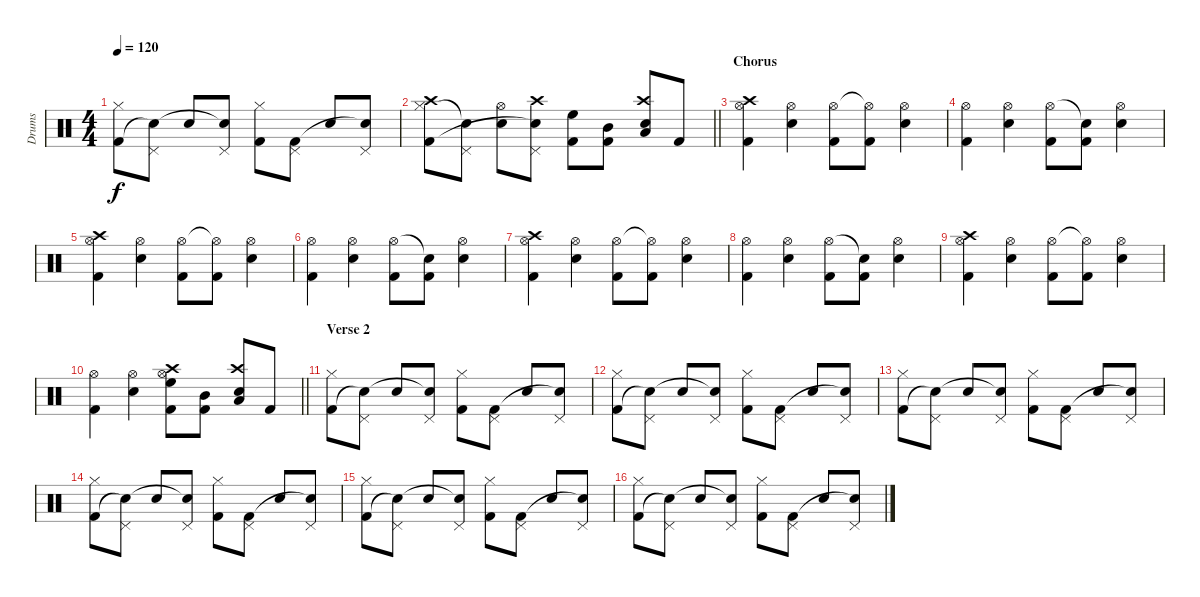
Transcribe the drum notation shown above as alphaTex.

\track ("Drums" "Drums") {instrument percussion}
\staff {score}
\articulation defaults
\ts (4 4)
\tempo 120
\clef neutral
\ks c
("Hi-Hat (closed)" "Kick (hit) 2").8{dy f} ("Pedal Hi-Hat (hit)" "Snare (hit)"{t}).8 "Snare (hit) 2".8 ("Pedal Hi-Hat (hit)" "Snare (hit)"{t}).8 ("Hi-Hat (closed)" "Kick (hit) 2").8 ("Pedal Hi-Hat (hit)" "Kick (hit) 2").8 "Snare (hit) 2".8 ("Pedal Hi-Hat (hit)" "Snare (hit)"{t}).8 |
\barLineRight lightlight
("Crash high (hit)" "Hi-Hat (closed)" "Kick (hit) 2").8 ("Pedal Hi-Hat (hit)" "Snare (hit)"{t}).8 ("Hi-Hat (open)" "Snare (hit) 2").8 ("Crash high (hit)" "Pedal Hi-Hat (hit)" "Snare (hit)"{t}).8 ("High Floor Tom (hit)" "Kick (hit) 2").8 ("Mid Tom (hit)" "Kick (hit) 2").8 ("Crash high (hit)" "Low Floor Tom (hit)" "Snare (hit) 2").8 "Kick (hit) 2".8 |
\section ("" "Chorus")
("Crash high (hit)" "Hi-Hat (open)" "Kick (hit) 2").4 ("Hi-Hat (open)" "Snare (hit) 2").4 ("Hi-Hat (open)" "Kick (hit) 2").8 ("Hi-Hat (open)"{t} "Kick (hit) 2").8 ("Hi-Hat (open)" "Snare (hit) 2").4 |
("Hi-Hat (open)" "Kick (hit) 2").4 ("Hi-Hat (open)" "Snare (hit) 2").4 ("Hi-Hat (open)" "Kick (hit) 2").8 ("Snare (hit)"{t} "Kick (hit) 2").8 ("Hi-Hat (open)" "Snare (hit) 2").4 |
("Crash high (hit)" "Hi-Hat (open)" "Kick (hit) 2").4 ("Hi-Hat (open)" "Snare (hit) 2").4 ("Hi-Hat (open)" "Kick (hit) 2").8 ("Hi-Hat (open)"{t} "Kick (hit) 2").8 ("Hi-Hat (open)" "Snare (hit) 2").4 |
("Hi-Hat (open)" "Kick (hit) 2").4 ("Hi-Hat (open)" "Snare (hit) 2").4 ("Hi-Hat (open)" "Kick (hit) 2").8 ("Snare (hit)"{t} "Kick (hit) 2").8 ("Hi-Hat (open)" "Snare (hit) 2").4 |
("Crash high (hit)" "Hi-Hat (open)" "Kick (hit) 2").4 ("Hi-Hat (open)" "Snare (hit) 2").4 ("Hi-Hat (open)" "Kick (hit) 2").8 ("Hi-Hat (open)"{t} "Kick (hit) 2").8 ("Hi-Hat (open)" "Snare (hit) 2").4 |
("Hi-Hat (open)" "Kick (hit) 2").4 ("Hi-Hat (open)" "Snare (hit) 2").4 ("Hi-Hat (open)" "Kick (hit) 2").8 ("Snare (hit)"{t} "Kick (hit) 2").8 ("Hi-Hat (open)" "Snare (hit) 2").4 |
("Crash high (hit)" "Hi-Hat (open)" "Kick (hit) 2").4 ("Hi-Hat (open)" "Snare (hit) 2").4 ("Hi-Hat (open)" "Kick (hit) 2").8 ("Hi-Hat (open)"{t} "Kick (hit) 2").8 ("Hi-Hat (open)" "Snare (hit) 2").4 |
\barLineRight lightlight
("Hi-Hat (open)" "Kick (hit) 2").4 ("Hi-Hat (open)" "Snare (hit) 2").4 ("Crash high (hit)" "Hi-Hat (open)" "High Floor Tom (hit)" "Kick (hit) 2").8 ("Mid Tom (hit)" "Kick (hit) 2").8 ("Crash high (hit)" "Low Floor Tom (hit)" "Snare (hit) 2").8 "Kick (hit) 2".8 |
\section ("" "Verse 2")
("Hi-Hat (closed)" "Kick (hit) 2").8 ("Pedal Hi-Hat (hit)" "Snare (hit)"{t}).8 "Snare (hit) 2".8 ("Pedal Hi-Hat (hit)" "Snare (hit)"{t}).8 ("Hi-Hat (closed)" "Kick (hit) 2").8 ("Pedal Hi-Hat (hit)" "Kick (hit) 2").8 "Snare (hit) 2".8 ("Pedal Hi-Hat (hit)" "Snare (hit)"{t}).8 |
("Hi-Hat (closed)" "Kick (hit) 2").8 ("Pedal Hi-Hat (hit)" "Snare (hit)"{t}).8 "Snare (hit) 2".8 ("Pedal Hi-Hat (hit)" "Snare (hit)"{t}).8 ("Hi-Hat (closed)" "Kick (hit) 2").8 ("Pedal Hi-Hat (hit)" "Kick (hit) 2").8 "Snare (hit) 2".8 ("Pedal Hi-Hat (hit)" "Snare (hit)"{t}).8 |
("Hi-Hat (closed)" "Kick (hit) 2").8 ("Pedal Hi-Hat (hit)" "Snare (hit)"{t}).8 "Snare (hit) 2".8 ("Pedal Hi-Hat (hit)" "Snare (hit)"{t}).8 ("Hi-Hat (closed)" "Kick (hit) 2").8 ("Pedal Hi-Hat (hit)" "Kick (hit) 2").8 "Snare (hit) 2".8 ("Pedal Hi-Hat (hit)" "Snare (hit)"{t}).8 |
("Hi-Hat (closed)" "Kick (hit) 2").8 ("Pedal Hi-Hat (hit)" "Snare (hit)"{t}).8 "Snare (hit) 2".8 ("Pedal Hi-Hat (hit)" "Snare (hit)"{t}).8 ("Hi-Hat (closed)" "Kick (hit) 2").8 ("Pedal Hi-Hat (hit)" "Kick (hit) 2").8 "Snare (hit) 2".8 ("Pedal Hi-Hat (hit)" "Snare (hit)"{t}).8 |
("Hi-Hat (closed)" "Kick (hit) 2").8 ("Pedal Hi-Hat (hit)" "Snare (hit)"{t}).8 "Snare (hit) 2".8 ("Pedal Hi-Hat (hit)" "Snare (hit)"{t}).8 ("Hi-Hat (closed)" "Kick (hit) 2").8 ("Pedal Hi-Hat (hit)" "Kick (hit) 2").8 "Snare (hit) 2".8 ("Pedal Hi-Hat (hit)" "Snare (hit)"{t}).8 |
("Hi-Hat (closed)" "Kick (hit) 2").8 ("Pedal Hi-Hat (hit)" "Snare (hit)"{t}).8 "Snare (hit) 2".8 ("Pedal Hi-Hat (hit)" "Snare (hit)"{t}).8 ("Hi-Hat (closed)" "Kick (hit) 2").8 ("Pedal Hi-Hat (hit)" "Kick (hit) 2").8 "Snare (hit) 2".8 ("Pedal Hi-Hat (hit)" "Snare (hit)"{t}).8
